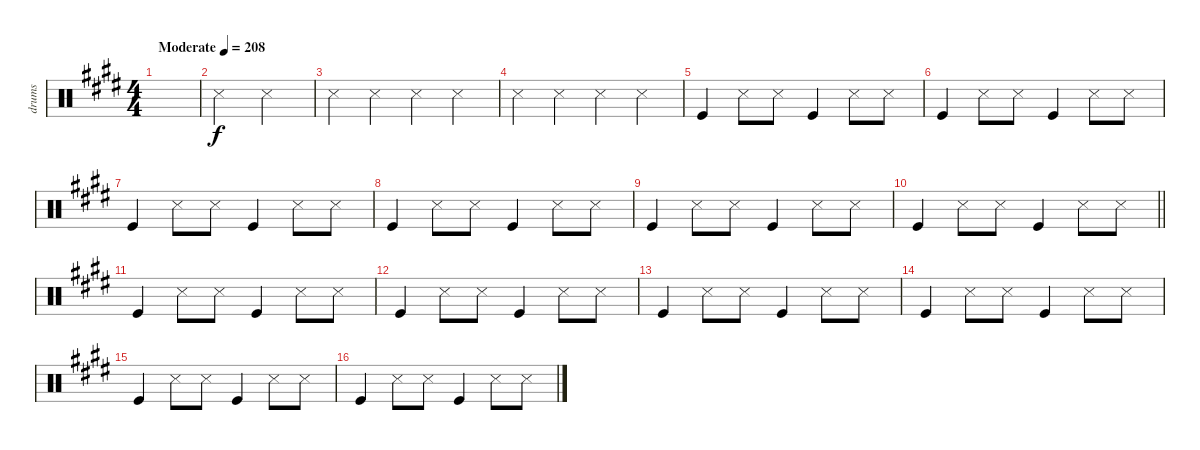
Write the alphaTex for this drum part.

\track ("drums" "drums") {instrument percussion}
\staff {score}
\articulation defaults
\ts (4 4)
\tempo (208 "Moderate")
\clef neutral
\ks e
|
"Snare (side stick) 3".2 "Snare (side stick) 3".2 |
"Snare (side stick) 3".4 "Snare (side stick) 3".4 "Snare (side stick) 3".4 "Snare (side stick) 3".4 |
"Snare (side stick) 3".4 "Snare (side stick) 3".4 "Snare (side stick) 3".4 "Snare (side stick) 3".4 |
"Kick (hit)".4 "Snare (side stick) 3".8 "Snare (side stick) 3".8 "Kick (hit)".4 "Snare (side stick) 3".8 "Snare (side stick) 3".8 |
"Kick (hit)".4 "Snare (side stick) 3".8 "Snare (side stick) 3".8 "Kick (hit)".4 "Snare (side stick) 3".8 "Snare (side stick) 3".8 |
"Kick (hit)".4 "Snare (side stick) 3".8 "Snare (side stick) 3".8 "Kick (hit)".4 "Snare (side stick) 3".8 "Snare (side stick) 3".8 |
"Kick (hit)".4 "Snare (side stick) 3".8 "Snare (side stick) 3".8 "Kick (hit)".4 "Snare (side stick) 3".8 "Snare (side stick) 3".8 |
"Kick (hit)".4 "Snare (side stick) 3".8 "Snare (side stick) 3".8 "Kick (hit)".4 "Snare (side stick) 3".8 "Snare (side stick) 3".8 |
\barLineRight lightlight "Kick (hit)".4 "Snare (side stick) 3".8 "Snare (side stick) 3".8 "Kick (hit)".4 "Snare (side stick) 3".8 "Snare (side stick) 3".8
|
"Kick (hit)".4 "Snare (side stick) 3".8 "Snare (side stick) 3".8 "Kick (hit)".4 "Snare (side stick) 3".8 "Snare (side stick) 3".8 |
"Kick (hit)".4 "Snare (side stick) 3".8 "Snare (side stick) 3".8 "Kick (hit)".4 "Snare (side stick) 3".8 "Snare (side stick) 3".8 |
"Kick (hit)".4 "Snare (side stick) 3".8 "Snare (side stick) 3".8 "Kick (hit)".4 "Snare (side stick) 3".8 "Snare (side stick) 3".8 |
"Kick (hit)".4 "Snare (side stick) 3".8 "Snare (side stick) 3".8 "Kick (hit)".4 "Snare (side stick) 3".8 "Snare (side stick) 3".8 |
"Kick (hit)".4 "Snare (side stick) 3".8 "Snare (side stick) 3".8 "Kick (hit)".4 "Snare (side stick) 3".8 "Snare (side stick) 3".8 |
"Kick (hit)".4 "Snare (side stick) 3".8 "Snare (side stick) 3".8 "Kick (hit)".4 "Snare (side stick) 3".8 "Snare (side stick) 3".8
